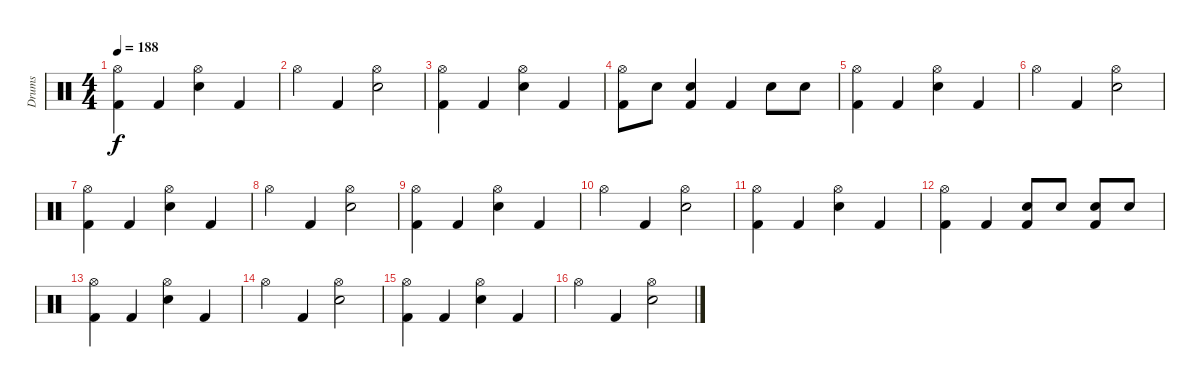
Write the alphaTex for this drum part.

\track ("Drums" "Drums") {instrument percussion}
\staff {score}
\articulation defaults
\ts (4 4)
\tempo 188
\clef neutral
\ks c
("Hi-Hat (open)" "Kick (hit) 2").4{dy f} "Kick (hit) 2".4 ("Hi-Hat (open)" "Electric Snare (hit)").4 "Kick (hit) 2".4 |
"Hi-Hat (open)".4 "Kick (hit) 2".4 ("Hi-Hat (open)" "Electric Snare (hit)").2 |
("Hi-Hat (open)" "Kick (hit) 2").4 "Kick (hit) 2".4 ("Hi-Hat (open)" "Electric Snare (hit)").4 "Kick (hit) 2".4 |
("Hi-Hat (open)" "Kick (hit) 2").8 "Electric Snare (hit)".8 ("Electric Snare (hit)" "Kick (hit) 2").4 "Kick (hit) 2".4 "Electric Snare (hit)".8 "Electric Snare (hit)".8 |
("Hi-Hat (open)" "Kick (hit) 2").4 "Kick (hit) 2".4 ("Hi-Hat (open)" "Electric Snare (hit)").4 "Kick (hit) 2".4 |
"Hi-Hat (open)".4 "Kick (hit) 2".4 ("Hi-Hat (open)" "Electric Snare (hit)").2 |
("Hi-Hat (open)" "Kick (hit) 2").4 "Kick (hit) 2".4 ("Hi-Hat (open)" "Electric Snare (hit)").4 "Kick (hit) 2".4 |
"Hi-Hat (open)".4 "Kick (hit) 2".4 ("Hi-Hat (open)" "Electric Snare (hit)").2 |
("Hi-Hat (open)" "Kick (hit) 2").4 "Kick (hit) 2".4 ("Hi-Hat (open)" "Electric Snare (hit)").4 "Kick (hit) 2".4 |
"Hi-Hat (open)".4 "Kick (hit) 2".4 ("Hi-Hat (open)" "Electric Snare (hit)").2 |
("Hi-Hat (open)" "Kick (hit) 2").4 "Kick (hit) 2".4 ("Hi-Hat (open)" "Electric Snare (hit)").4 "Kick (hit) 2".4 |
("Hi-Hat (open)" "Kick (hit) 2").4 "Kick (hit) 2".4 ("Electric Snare (hit)" "Kick (hit) 2").8 "Electric Snare (hit)".8 ("Electric Snare (hit)" "Kick (hit) 2").8 "Electric Snare (hit)".8 |
("Hi-Hat (open)" "Kick (hit) 2").4 "Kick (hit) 2".4 ("Hi-Hat (open)" "Electric Snare (hit)").4 "Kick (hit) 2".4 |
"Hi-Hat (open)".4 "Kick (hit) 2".4 ("Hi-Hat (open)" "Electric Snare (hit)").2 |
("Hi-Hat (open)" "Kick (hit) 2").4 "Kick (hit) 2".4 ("Hi-Hat (open)" "Electric Snare (hit)").4 "Kick (hit) 2".4 |
"Hi-Hat (open)".4 "Kick (hit) 2".4 ("Hi-Hat (open)" "Electric Snare (hit)").2
